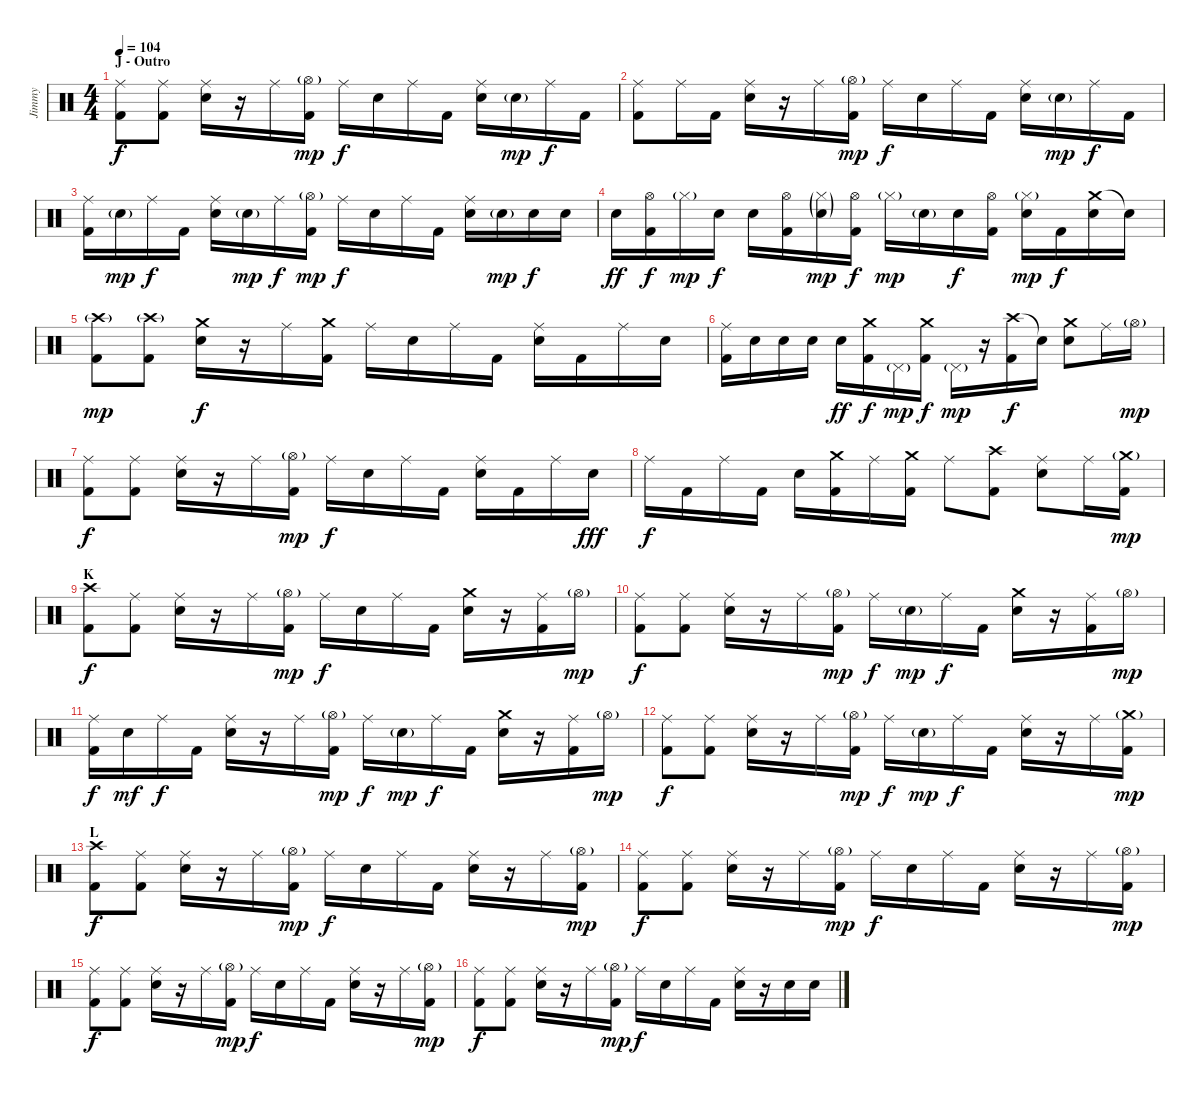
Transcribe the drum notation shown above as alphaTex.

\track ("Jimmy" "Jimmy") {instrument percussion}
\staff {score}
\articulation defaults
\ts (4 4)
\section ("" "J - Outro")
\tempo 104
\clef neutral
\ks c
("Ride (middle)" "Kick (hit) 2").8{dy f} ("Ride (middle)" "Kick (hit) 2").8 ("Ride (middle)" "Electric Snare (hit)").16 r.16 "Ride (middle)".16 ("Hi-Hat (open)"{g} "Kick (hit) 2").16{dy mp} "Ride (middle)".16{dy f} "Electric Snare (hit)".16 "Ride (middle)".16 "Kick (hit) 2".16 ("Ride (middle)" "Electric Snare (hit)").16 "Electric Snare (hit)"{g}.16{dy mp} "Ride (middle)".16{dy f} "Kick (hit) 2".16 |
("Ride (middle)" "Kick (hit) 2").8 "Ride (middle)".16 "Kick (hit) 2".16 ("Ride (middle)" "Electric Snare (hit)").16 r.16 "Ride (middle)".16 ("Hi-Hat (open)"{g} "Kick (hit) 2").16{dy mp} "Ride (middle)".16{dy f} "Electric Snare (hit)".16 "Ride (middle)".16 "Kick (hit) 2".16 ("Ride (middle)" "Electric Snare (hit)").16 "Electric Snare (hit)"{g}.16{dy mp} "Ride (middle)".16{dy f} "Kick (hit) 2".16 |
("Ride (middle)" "Kick (hit) 2").16 "Electric Snare (hit)"{g}.16{dy mp} "Ride (middle)".16{dy f} "Kick (hit) 2".16 ("Ride (middle)" "Electric Snare (hit)").16 "Electric Snare (hit)"{g}.16{dy mp} "Ride (middle)".16{dy f} ("Hi-Hat (open)"{g} "Kick (hit) 2").16{dy mp} "Ride (middle)".16{dy f} "Electric Snare (hit)".16 "Ride (middle)".16 "Kick (hit) 2".16 ("Ride (middle)" "Electric Snare (hit)").16 "Electric Snare (hit)"{g}.16{dy mp} "Electric Snare (hit)".16{dy f} "Electric Snare (hit)".16 |
"Electric Snare (hit)".16{dy ff} ("Hi-Hat (open)" "Kick (hit) 2").16{dy f} "Hi-Hat (closed)"{g}.16{dy mp} "Electric Snare (hit)".16{dy f} "Electric Snare (hit)".16 ("Hi-Hat (open)" "Kick (hit) 2").16 ("Hi-Hat (closed)"{g} "Electric Snare (hit)"{g}).16{dy mp} ("Hi-Hat (open)" "Kick (hit) 2").16{dy f} "Hi-Hat (closed)"{g}.16{dy mp} "Electric Snare (hit)"{g}.16 "Electric Snare (hit)".16{dy f} ("Hi-Hat (open)" "Kick (hit) 2").16 ("Hi-Hat (closed)"{g} "Electric Snare (hit)").16{dy mp} "Kick (hit) 2".16{dy f} ("Crash medium (hit)" "Electric Snare (hit)").16 "Snare (hit)"{t}.16 |
("Crash high (hit)"{g} "Kick (hit) 2").8{dy mp} ("Crash high (hit)"{g} "Kick (hit) 2").8 ("Crash medium (hit)" "Electric Snare (hit)").16{dy f} r.16 "Ride (middle)".16 ("Crash medium (hit)" "Kick (hit) 2").16 "Ride (middle)".16 "Electric Snare (hit)".16 "Ride (middle)".16 "Kick (hit) 2".16 ("Ride (middle)" "Electric Snare (hit)").16 "Kick (hit) 2".16 "Ride (middle)".16 "Electric Snare (hit)".16 |
("Ride (middle)" "Kick (hit) 2").16 "Electric Snare (hit)".16 "Electric Snare (hit)".16 "Electric Snare (hit)".16 "Electric Snare (hit)".16{dy ff} ("Crash medium (hit)" "Kick (hit) 2").16{dy f} "Pedal Hi-Hat (hit)"{g}.16{dy mp} ("Crash medium (hit)" "Kick (hit) 2").16{dy f} "Pedal Hi-Hat (hit)"{g}.16{dy mp} r.16 ("Crash high (hit)" "Kick (hit) 2").16{dy f} "Snare (hit)"{t}.16 ("Crash medium (hit)" "Electric Snare (hit)").8 "Ride (middle)".16 "Hi-Hat (open)"{g}.16{dy mp} |
("Ride (middle)" "Kick (hit) 2").8{dy f} ("Ride (middle)" "Kick (hit) 2").8 ("Ride (middle)" "Electric Snare (hit)").16 r.16 "Ride (middle)".16 ("Hi-Hat (open)"{g} "Kick (hit) 2").16{dy mp} "Ride (middle)".16{dy f} "Electric Snare (hit)".16 "Ride (middle)".16 "Kick (hit) 2".16 ("Ride (middle)" "Electric Snare (hit)").16 "Kick (hit) 2".16 "Ride (middle)".16 "Electric Snare (hit)".16{dy fff} |
"Ride (middle)".16{dy f} "Kick (hit) 2".16 "Ride (middle)".16 "Kick (hit) 2".16 "Electric Snare (hit)".16 ("Crash medium (hit)" "Kick (hit) 2").16 "Ride (middle)".16 ("Crash medium (hit)" "Kick (hit) 2").16 "Ride (middle)".8 ("Crash high (hit)" "Kick (hit) 2").8 ("Ride (middle)" "Electric Snare (hit)").8 "Ride (middle)".16 ("Crash medium (hit)"{g} "Kick (hit) 2").16{dy mp} |
\section ("" "K")
("Crash high (hit)" "Kick (hit) 2").8{dy f} ("Ride (middle)" "Kick (hit) 2").8 ("Ride (middle)" "Electric Snare (hit)").16 r.16 "Ride (middle)".16 ("Hi-Hat (open)"{g} "Kick (hit) 2").16{dy mp} "Ride (middle)".16{dy f} "Electric Snare (hit)".16 "Ride (middle)".16 "Kick (hit) 2".16 ("Crash medium (hit)" "Electric Snare (hit)").16 r.16 ("Ride (middle)" "Kick (hit) 2").16 "Hi-Hat (open)"{g}.16{dy mp} |
("Ride (middle)" "Kick (hit) 2").8{dy f} ("Ride (middle)" "Kick (hit) 2").8 ("Ride (middle)" "Electric Snare (hit)").16 r.16 "Ride (middle)".16 ("Hi-Hat (open)"{g} "Kick (hit) 2").16{dy mp} "Ride (middle)".16{dy f} "Electric Snare (hit)"{g}.16{dy mp} "Ride (middle)".16{dy f} "Kick (hit) 2".16 ("Crash medium (hit)" "Electric Snare (hit)").16 r.16 ("Ride (middle)" "Kick (hit) 2").16 "Hi-Hat (open)"{g}.16{dy mp} |
("Ride (middle)" "Kick (hit) 2").16{dy f} "Electric Snare (hit)".16{dy mf} "Ride (middle)".16{dy f} "Kick (hit) 2".16 ("Ride (middle)" "Electric Snare (hit)").16 r.16 "Ride (middle)".16 ("Hi-Hat (open)"{g} "Kick (hit) 2").16{dy mp} "Ride (middle)".16{dy f} "Electric Snare (hit)"{g}.16{dy mp} "Ride (middle)".16{dy f} "Kick (hit) 2".16 ("Crash medium (hit)" "Electric Snare (hit)").16 r.16 ("Ride (middle)" "Kick (hit) 2").16 "Hi-Hat (open)"{g}.16{dy mp} |
("Ride (middle)" "Kick (hit) 2").8{dy f} ("Ride (middle)" "Kick (hit) 2").8 ("Ride (middle)" "Electric Snare (hit)").16 r.16 "Ride (middle)".16 ("Hi-Hat (open)"{g} "Kick (hit) 2").16{dy mp} "Ride (middle)".16{dy f} "Electric Snare (hit)"{g}.16{dy mp} "Ride (middle)".16{dy f} "Kick (hit) 2".16 ("Ride (middle)" "Electric Snare (hit)").16 r.16 "Ride (middle)".16 ("Crash medium (hit)"{g} "Kick (hit) 2").16{dy mp} |
\section ("" "L")
("Crash high (hit)" "Kick (hit) 2").8{dy f} ("Ride (middle)" "Kick (hit) 2").8 ("Ride (middle)" "Electric Snare (hit)").16 r.16 "Ride (middle)".16 ("Hi-Hat (open)"{g} "Kick (hit) 2").16{dy mp} "Ride (middle)".16{dy f} "Electric Snare (hit)".16 "Ride (middle)".16 "Kick (hit) 2".16 ("Ride (middle)" "Electric Snare (hit)").16 r.16 "Ride (middle)".16 ("Hi-Hat (open)"{g} "Kick (hit) 2").16{dy mp} |
("Ride (middle)" "Kick (hit) 2").8{dy f} ("Ride (middle)" "Kick (hit) 2").8 ("Ride (middle)" "Electric Snare (hit)").16 r.16 "Ride (middle)".16 ("Hi-Hat (open)"{g} "Kick (hit) 2").16{dy mp} "Ride (middle)".16{dy f} "Electric Snare (hit)".16 "Ride (middle)".16 "Kick (hit) 2".16 ("Ride (middle)" "Electric Snare (hit)").16 r.16 "Ride (middle)".16 ("Hi-Hat (open)"{g} "Kick (hit) 2").16{dy mp} |
("Ride (middle)" "Kick (hit) 2").8{dy f} ("Ride (middle)" "Kick (hit) 2").8 ("Ride (middle)" "Electric Snare (hit)").16 r.16 "Ride (middle)".16 ("Hi-Hat (open)"{g} "Kick (hit) 2").16{dy mp} "Ride (middle)".16{dy f} "Electric Snare (hit)".16 "Ride (middle)".16 "Kick (hit) 2".16 ("Ride (middle)" "Electric Snare (hit)").16 r.16 "Ride (middle)".16 ("Hi-Hat (open)"{g} "Kick (hit) 2").16{dy mp} |
("Ride (middle)" "Kick (hit) 2").8{dy f} ("Ride (middle)" "Kick (hit) 2").8 ("Ride (middle)" "Electric Snare (hit)").16 r.16 "Ride (middle)".16 ("Hi-Hat (open)"{g} "Kick (hit) 2").16{dy mp} "Ride (middle)".16{dy f} "Electric Snare (hit)".16 "Ride (middle)".16 "Kick (hit) 2".16 ("Ride (middle)" "Electric Snare (hit)").16 r.16 "Electric Snare (hit)".16 "Electric Snare (hit)".16
